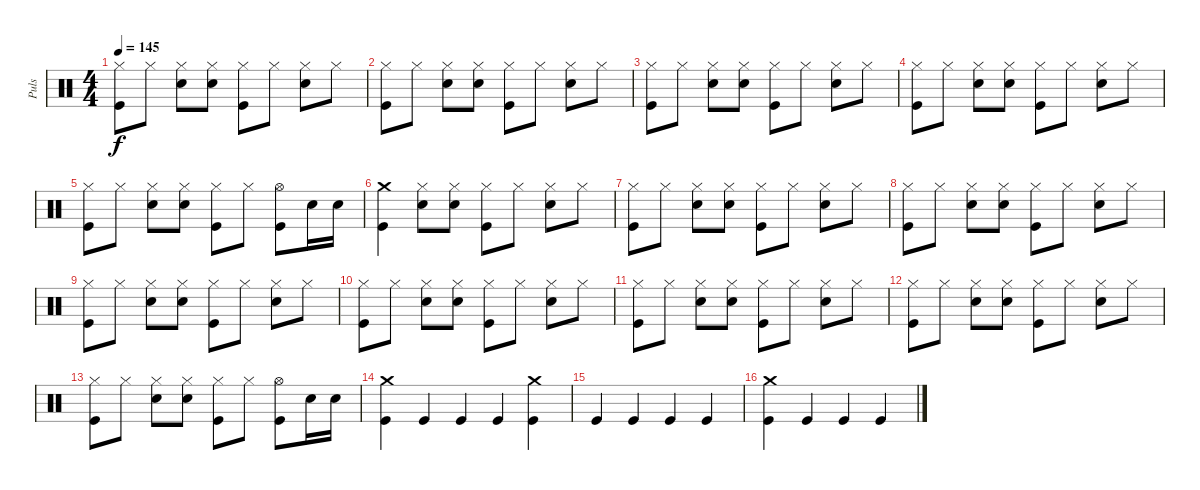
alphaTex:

\track ("Puls" "Puls") {instrument percussion}
\staff {score}
\articulation defaults
\ts (4 4)
\tempo 145
\clef neutral
\ks c
("Hi-Hat (closed)" "Kick (hit)").8{dy f} "Hi-Hat (closed)".8 ("Hi-Hat (closed)" "Snare (hit) 2").8 ("Hi-Hat (closed)" "Snare (hit) 2").8 ("Hi-Hat (closed)" "Kick (hit)").8 "Hi-Hat (closed)".8 ("Hi-Hat (closed)" "Snare (hit) 2").8 "Hi-Hat (closed)".8 |
("Hi-Hat (closed)" "Kick (hit)").8 "Hi-Hat (closed)".8 ("Hi-Hat (closed)" "Snare (hit) 2").8 ("Hi-Hat (closed)" "Snare (hit) 2").8 ("Hi-Hat (closed)" "Kick (hit)").8 "Hi-Hat (closed)".8 ("Hi-Hat (closed)" "Snare (hit) 2").8 "Hi-Hat (closed)".8 |
("Hi-Hat (closed)" "Kick (hit)").8 "Hi-Hat (closed)".8 ("Hi-Hat (closed)" "Snare (hit) 2").8 ("Hi-Hat (closed)" "Snare (hit) 2").8 ("Hi-Hat (closed)" "Kick (hit)").8 "Hi-Hat (closed)".8 ("Hi-Hat (closed)" "Snare (hit) 2").8 "Hi-Hat (closed)".8 |
("Hi-Hat (closed)" "Kick (hit)").8 "Hi-Hat (closed)".8 ("Hi-Hat (closed)" "Snare (hit) 2").8 ("Hi-Hat (closed)" "Snare (hit) 2").8 ("Hi-Hat (closed)" "Kick (hit)").8 "Hi-Hat (closed)".8 ("Hi-Hat (closed)" "Snare (hit) 2").8 "Hi-Hat (closed)".8 |
("Hi-Hat (closed)" "Kick (hit)").8 "Hi-Hat (closed)".8 ("Hi-Hat (closed)" "Snare (hit) 2").8 ("Hi-Hat (closed)" "Snare (hit) 2").8 ("Hi-Hat (closed)" "Kick (hit)").8 "Hi-Hat (closed)".8 ("Hi-Hat (open)" "Kick (hit)").8 "Snare (hit) 2".16 "Snare (hit) 2".16 |
("Crash medium (hit)" "Kick (hit)").4 ("Hi-Hat (closed)" "Snare (hit) 2").8 ("Hi-Hat (closed)" "Snare (hit) 2").8 ("Hi-Hat (closed)" "Kick (hit)").8 "Hi-Hat (closed)".8 ("Hi-Hat (closed)" "Snare (hit) 2").8 "Hi-Hat (closed)".8 |
("Hi-Hat (closed)" "Kick (hit)").8 "Hi-Hat (closed)".8 ("Hi-Hat (closed)" "Snare (hit) 2").8 ("Hi-Hat (closed)" "Snare (hit) 2").8 ("Hi-Hat (closed)" "Kick (hit)").8 "Hi-Hat (closed)".8 ("Hi-Hat (closed)" "Snare (hit) 2").8 "Hi-Hat (closed)".8 |
("Hi-Hat (closed)" "Kick (hit)").8 "Hi-Hat (closed)".8 ("Hi-Hat (closed)" "Snare (hit) 2").8 ("Hi-Hat (closed)" "Snare (hit) 2").8 ("Hi-Hat (closed)" "Kick (hit)").8 "Hi-Hat (closed)".8 ("Hi-Hat (closed)" "Snare (hit) 2").8 "Hi-Hat (closed)".8 |
("Hi-Hat (closed)" "Kick (hit)").8 "Hi-Hat (closed)".8 ("Hi-Hat (closed)" "Snare (hit) 2").8 ("Hi-Hat (closed)" "Snare (hit) 2").8 ("Hi-Hat (closed)" "Kick (hit)").8 "Hi-Hat (closed)".8 ("Hi-Hat (closed)" "Snare (hit) 2").8 "Hi-Hat (closed)".8 |
("Hi-Hat (closed)" "Kick (hit)").8 "Hi-Hat (closed)".8 ("Hi-Hat (closed)" "Snare (hit) 2").8 ("Hi-Hat (closed)" "Snare (hit) 2").8 ("Hi-Hat (closed)" "Kick (hit)").8 "Hi-Hat (closed)".8 ("Hi-Hat (closed)" "Snare (hit) 2").8 "Hi-Hat (closed)".8 |
("Hi-Hat (closed)" "Kick (hit)").8 "Hi-Hat (closed)".8 ("Hi-Hat (closed)" "Snare (hit) 2").8 ("Hi-Hat (closed)" "Snare (hit) 2").8 ("Hi-Hat (closed)" "Kick (hit)").8 "Hi-Hat (closed)".8 ("Hi-Hat (closed)" "Snare (hit) 2").8 "Hi-Hat (closed)".8 |
("Hi-Hat (closed)" "Kick (hit)").8 "Hi-Hat (closed)".8 ("Hi-Hat (closed)" "Snare (hit) 2").8 ("Hi-Hat (closed)" "Snare (hit) 2").8 ("Hi-Hat (closed)" "Kick (hit)").8 "Hi-Hat (closed)".8 ("Hi-Hat (closed)" "Snare (hit) 2").8 "Hi-Hat (closed)".8 |
("Hi-Hat (closed)" "Kick (hit)").8 "Hi-Hat (closed)".8 ("Hi-Hat (closed)" "Snare (hit) 2").8 ("Hi-Hat (closed)" "Snare (hit) 2").8 ("Hi-Hat (closed)" "Kick (hit)").8 "Hi-Hat (closed)".8 ("Hi-Hat (open)" "Kick (hit)").8 "Snare (hit) 2".16 "Snare (hit) 2".16 |
("Crash medium (hit)" "Kick (hit)").4 "Kick (hit)".4 "Kick (hit)".4 "Kick (hit)".4 ("Crash medium (hit)" "Kick (hit)").4 |
"Kick (hit)".4 "Kick (hit)".4 "Kick (hit)".4 "Kick (hit)".4 |
("Crash medium (hit)" "Kick (hit)").4 "Kick (hit)".4 "Kick (hit)".4 "Kick (hit)".4
